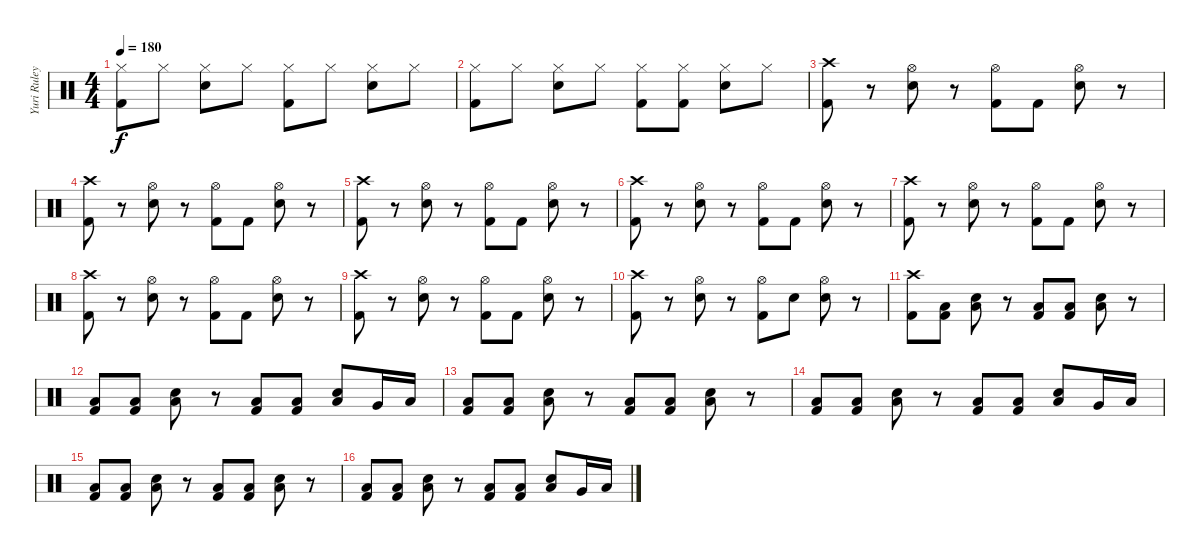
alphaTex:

\track ("Yuri Ruley [Drums]" "Yuri Ruley") {instrument percussion}
\staff {score}
\articulation defaults
\ts (4 4)
\tempo 180
\clef neutral
\ks c
("Hi-Hat (closed)" "Kick (hit) 2").8{dy f} "Hi-Hat (closed)".8 ("Hi-Hat (closed)" "Snare (hit) 2").8 "Hi-Hat (closed)".8 ("Hi-Hat (closed)" "Kick (hit) 2").8 "Hi-Hat (closed)".8 ("Hi-Hat (closed)" "Snare (hit) 2").8 "Hi-Hat (closed)".8 |
("Hi-Hat (closed)" "Kick (hit) 2").8 "Hi-Hat (closed)".8 ("Hi-Hat (closed)" "Snare (hit) 2").8 "Hi-Hat (closed)".8 ("Hi-Hat (closed)" "Kick (hit) 2").8 ("Hi-Hat (closed)" "Kick (hit) 2").8 ("Hi-Hat (closed)" "Snare (hit) 2").8 "Hi-Hat (closed)".8 |
("Crash high (hit)" "Kick (hit) 2").8 r.8 ("Hi-Hat (open)" "Snare (hit) 2").8 r.8 ("Hi-Hat (open)" "Kick (hit) 2").8 "Kick (hit) 2".8 ("Hi-Hat (open)" "Snare (hit) 2").8 r.8 |
("Crash high (hit)" "Kick (hit) 2").8 r.8 ("Hi-Hat (open)" "Snare (hit) 2").8 r.8 ("Hi-Hat (open)" "Kick (hit) 2").8 "Kick (hit) 2".8 ("Hi-Hat (open)" "Snare (hit) 2").8 r.8 |
("Crash high (hit)" "Kick (hit) 2").8 r.8 ("Hi-Hat (open)" "Snare (hit) 2").8 r.8 ("Hi-Hat (open)" "Kick (hit) 2").8 "Kick (hit) 2".8 ("Hi-Hat (open)" "Snare (hit) 2").8 r.8 |
("Crash high (hit)" "Kick (hit) 2").8 r.8 ("Hi-Hat (open)" "Snare (hit) 2").8 r.8 ("Hi-Hat (open)" "Kick (hit) 2").8 "Kick (hit) 2".8 ("Hi-Hat (open)" "Snare (hit) 2").8 r.8 |
("Crash high (hit)" "Kick (hit) 2").8 r.8 ("Hi-Hat (open)" "Snare (hit) 2").8 r.8 ("Hi-Hat (open)" "Kick (hit) 2").8 "Kick (hit) 2".8 ("Hi-Hat (open)" "Snare (hit) 2").8 r.8 |
("Crash high (hit)" "Kick (hit) 2").8 r.8 ("Hi-Hat (open)" "Snare (hit) 2").8 r.8 ("Hi-Hat (open)" "Kick (hit) 2").8 "Kick (hit) 2".8 ("Hi-Hat (open)" "Snare (hit) 2").8 r.8 |
("Crash high (hit)" "Kick (hit) 2").8 r.8 ("Hi-Hat (open)" "Snare (hit) 2").8 r.8 ("Hi-Hat (open)" "Kick (hit) 2").8 "Kick (hit) 2".8 ("Hi-Hat (open)" "Snare (hit) 2").8 r.8 |
("Crash high (hit)" "Kick (hit) 2").8 r.8 ("Hi-Hat (open)" "Snare (hit) 2").8 r.8 ("Hi-Hat (open)" "Kick (hit) 2").8 "Snare (hit) 2".8 ("Hi-Hat (open)" "Snare (hit) 2").8 r.8 |
("Crash high (hit)" "Kick (hit) 2").8 ("Low Floor Tom (hit)" "Kick (hit) 2").8 ("Low Floor Tom (hit)" "Snare (hit) 2").8 r.8 ("Low Floor Tom (hit)" "Kick (hit) 2").8 ("Low Floor Tom (hit)" "Kick (hit) 2").8 ("Low Floor Tom (hit)" "Snare (hit) 2").8 r.8 |
("Low Floor Tom (hit)" "Kick (hit) 2").8 ("Low Floor Tom (hit)" "Kick (hit) 2").8 ("Low Floor Tom (hit)" "Snare (hit) 2").8 r.8 ("Low Floor Tom (hit)" "Kick (hit) 2").8 ("Low Floor Tom (hit)" "Kick (hit) 2").8 ("Low Floor Tom (hit)" "Snare (hit) 2").8 "Very Low Tom (hit)".16 "Low Tom (hit)".16 |
("Low Floor Tom (hit)" "Kick (hit) 2").8 ("Low Floor Tom (hit)" "Kick (hit) 2").8 ("Low Floor Tom (hit)" "Snare (hit) 2").8 r.8 ("Low Floor Tom (hit)" "Kick (hit) 2").8 ("Low Floor Tom (hit)" "Kick (hit) 2").8 ("Low Floor Tom (hit)" "Snare (hit) 2").8 r.8 |
("Low Floor Tom (hit)" "Kick (hit) 2").8 ("Low Floor Tom (hit)" "Kick (hit) 2").8 ("Low Floor Tom (hit)" "Snare (hit) 2").8 r.8 ("Low Floor Tom (hit)" "Kick (hit) 2").8 ("Low Floor Tom (hit)" "Kick (hit) 2").8 ("Low Floor Tom (hit)" "Snare (hit) 2").8 "Very Low Tom (hit)".16 "Low Tom (hit)".16 |
("Low Floor Tom (hit)" "Kick (hit) 2").8 ("Low Floor Tom (hit)" "Kick (hit) 2").8 ("Low Floor Tom (hit)" "Snare (hit) 2").8 r.8 ("Low Floor Tom (hit)" "Kick (hit) 2").8 ("Low Floor Tom (hit)" "Kick (hit) 2").8 ("Low Floor Tom (hit)" "Snare (hit) 2").8 r.8 |
("Low Floor Tom (hit)" "Kick (hit) 2").8 ("Low Floor Tom (hit)" "Kick (hit) 2").8 ("Low Floor Tom (hit)" "Snare (hit) 2").8 r.8 ("Low Floor Tom (hit)" "Kick (hit) 2").8 ("Low Floor Tom (hit)" "Kick (hit) 2").8 ("Low Floor Tom (hit)" "Snare (hit) 2").8 "Very Low Tom (hit)".16 "Low Tom (hit)".16
